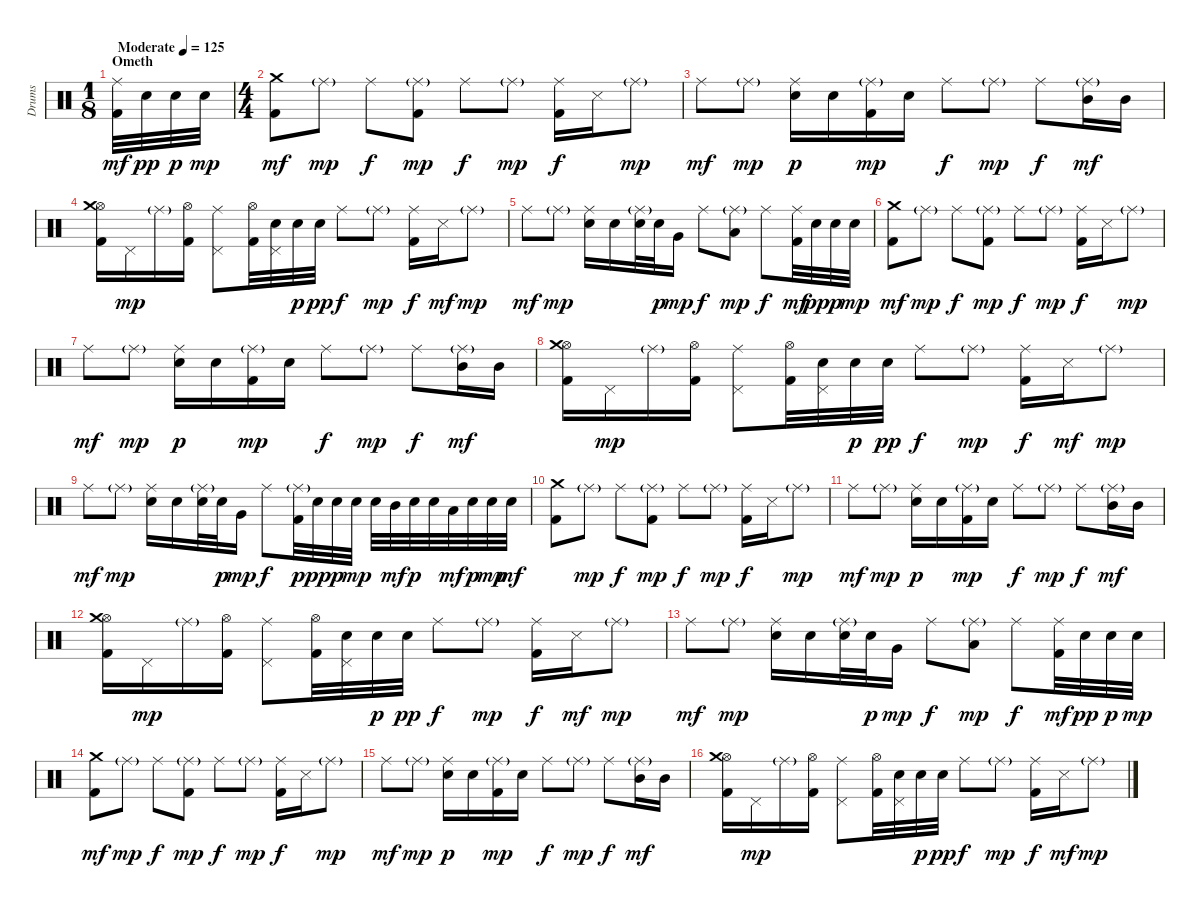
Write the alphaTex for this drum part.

\track ("Drums" "Drums") {instrument percussion}
\staff {score}
\articulation defaults
\ts (1 8)
\section ("" "Ometh")
\tempo (125 "Moderate")
\clef neutral
\ks c
("Ride (middle)" "Kick (hit) 2").32{dy mf} "Electric Snare (hit)".32{dy pp} "Electric Snare (hit)".32{dy p} "Electric Snare (hit)".32{dy mp} |
\ts (4 4)
("Crash medium (hit)" "Kick (hit) 2").8{dy mf} "Ride (middle)"{g}.8{dy mp} "Ride (middle)".8{dy f} ("Ride (middle)"{g} "Kick (hit) 2").8{dy mp} "Ride (middle)".8{dy f} "Ride (middle)"{g}.8{dy mp} ("Ride (middle)" "Kick (hit) 2").16{dy f} "Snare (side stick) 3".16 "Ride (middle)"{g}.8{dy mp} |
"Ride (middle)".8{dy mf} "Ride (middle)"{g}.8{dy mp} ("Ride (middle)" "Electric Snare (hit)").16{dy p} "Electric Snare (hit)".16 ("Ride (middle)"{g} "Kick (hit) 2").16{dy mp} "Electric Snare (hit)".16 "Ride (middle)".8{dy f} "Ride (middle)"{g}.8{dy mp} "Ride (middle)".8{dy f} ("Ride (middle)"{g} "Mid Tom (hit)").16{dy mf} "Mid Tom (hit)".16 |
("Hi-Hat (open)" "Crash medium (hit)" "Kick (hit) 2").16 "Pedal Hi-Hat (hit)".16{dy mp} "Ride (middle)"{g}.16 ("Hi-Hat (open)" "Kick (hit) 2").16 ("Pedal Hi-Hat (hit)" "Ride (middle)").8 ("Hi-Hat (open)" "Kick (hit) 2").32 ("Pedal Hi-Hat (hit)" "Electric Snare (hit)").32 "Electric Snare (hit)".32{dy p} "Electric Snare (hit)".32{dy pp} "Ride (middle)".8{dy f} "Ride (middle)"{g}.8{dy mp} ("Ride (middle)" "Kick (hit) 2").16{dy f} "Snare (side stick) 3".16{dy mf} "Ride (middle)"{g}.8{dy mp} |
"Ride (middle)".8{dy mf} "Ride (middle)"{g}.8{dy mp} ("Ride (middle)" "Electric Snare (hit)").16 "Electric Snare (hit)".16 ("Ride (middle)"{g} "Electric Snare (hit)").32 "Electric Snare (hit)".32{dy p} "Very Low Tom (hit)".16{dy mp} "Ride (middle)".8{dy f} ("Ride (middle)"{g} "Low Floor Tom (hit)").8{dy mp} "Ride (middle)".8{dy f} ("Ride (middle)" "Kick (hit) 2").32{dy mf} "Electric Snare (hit)".32{dy pp} "Electric Snare (hit)".32{dy p} "Electric Snare (hit)".32{dy mp} |
("Crash medium (hit)" "Kick (hit) 2").8{dy mf} "Ride (middle)"{g}.8{dy mp} "Ride (middle)".8{dy f} ("Ride (middle)"{g} "Kick (hit) 2").8{dy mp} "Ride (middle)".8{dy f} "Ride (middle)"{g}.8{dy mp} ("Ride (middle)" "Kick (hit) 2").16{dy f} "Snare (side stick) 3".16 "Ride (middle)"{g}.8{dy mp} |
"Ride (middle)".8{dy mf} "Ride (middle)"{g}.8{dy mp} ("Ride (middle)" "Electric Snare (hit)").16{dy p} "Electric Snare (hit)".16 ("Ride (middle)"{g} "Kick (hit) 2").16{dy mp} "Electric Snare (hit)".16 "Ride (middle)".8{dy f} "Ride (middle)"{g}.8{dy mp} "Ride (middle)".8{dy f} ("Ride (middle)"{g} "Mid Tom (hit)").16{dy mf} "Mid Tom (hit)".16 |
("Hi-Hat (open)" "Crash medium (hit)" "Kick (hit) 2").16 "Pedal Hi-Hat (hit)".16{dy mp} "Ride (middle)"{g}.16 ("Hi-Hat (open)" "Kick (hit) 2").16 ("Pedal Hi-Hat (hit)" "Ride (middle)").8 ("Hi-Hat (open)" "Kick (hit) 2").32 ("Pedal Hi-Hat (hit)" "Electric Snare (hit)").32 "Electric Snare (hit)".32{dy p} "Electric Snare (hit)".32{dy pp} "Ride (middle)".8{dy f} "Ride (middle)"{g}.8{dy mp} ("Ride (middle)" "Kick (hit) 2").16{dy f} "Snare (side stick) 3".16{dy mf} "Ride (middle)"{g}.8{dy mp} |
"Ride (middle)".8{dy mf} "Ride (middle)"{g}.8{dy mp} ("Ride (middle)" "Electric Snare (hit)").16 "Electric Snare (hit)".16 ("Ride (middle)"{g} "Electric Snare (hit)").32 "Electric Snare (hit)".32{dy p} "Very Low Tom (hit)".16{dy mp} "Ride (middle)".8{dy f} ("Ride (middle)"{g} "Kick (hit) 2").32{dy p} "Electric Snare (hit)".32{dy pp} "Electric Snare (hit)".32{dy p} "Electric Snare (hit)".32{dy mp} "Electric Snare (hit)".32 "Mid Tom (hit)".32{dy mf} "Electric Snare (hit)".32{dy p} "Electric Snare (hit)".32 "Low Tom (hit)".32{dy mf} "Electric Snare (hit)".32{dy p} "Electric Snare (hit)".32{dy mp} "Electric Snare (hit)".32{dy mf} |
("Crash medium (hit)" "Kick (hit) 2").8 "Ride (middle)"{g}.8{dy mp} "Ride (middle)".8{dy f} ("Ride (middle)"{g} "Kick (hit) 2").8{dy mp} "Ride (middle)".8{dy f} "Ride (middle)"{g}.8{dy mp} ("Ride (middle)" "Kick (hit) 2").16{dy f} "Snare (side stick) 3".16 "Ride (middle)"{g}.8{dy mp} |
"Ride (middle)".8{dy mf} "Ride (middle)"{g}.8{dy mp} ("Ride (middle)" "Electric Snare (hit)").16{dy p} "Electric Snare (hit)".16 ("Ride (middle)"{g} "Kick (hit) 2").16{dy mp} "Electric Snare (hit)".16 "Ride (middle)".8{dy f} "Ride (middle)"{g}.8{dy mp} "Ride (middle)".8{dy f} ("Ride (middle)"{g} "Mid Tom (hit)").16{dy mf} "Mid Tom (hit)".16 |
("Hi-Hat (open)" "Crash medium (hit)" "Kick (hit) 2").16 "Pedal Hi-Hat (hit)".16{dy mp} "Ride (middle)"{g}.16 ("Hi-Hat (open)" "Kick (hit) 2").16 ("Pedal Hi-Hat (hit)" "Ride (middle)").8 ("Hi-Hat (open)" "Kick (hit) 2").32 ("Pedal Hi-Hat (hit)" "Electric Snare (hit)").32 "Electric Snare (hit)".32{dy p} "Electric Snare (hit)".32{dy pp} "Ride (middle)".8{dy f} "Ride (middle)"{g}.8{dy mp} ("Ride (middle)" "Kick (hit) 2").16{dy f} "Snare (side stick) 3".16{dy mf} "Ride (middle)"{g}.8{dy mp} |
"Ride (middle)".8{dy mf} "Ride (middle)"{g}.8{dy mp} ("Ride (middle)" "Electric Snare (hit)").16 "Electric Snare (hit)".16 ("Ride (middle)"{g} "Electric Snare (hit)").32 "Electric Snare (hit)".32{dy p} "Very Low Tom (hit)".16{dy mp} "Ride (middle)".8{dy f} ("Ride (middle)"{g} "Low Floor Tom (hit)").8{dy mp} "Ride (middle)".8{dy f} ("Ride (middle)" "Kick (hit) 2").32{dy mf} "Electric Snare (hit)".32{dy pp} "Electric Snare (hit)".32{dy p} "Electric Snare (hit)".32{dy mp} |
("Crash medium (hit)" "Kick (hit) 2").8{dy mf} "Ride (middle)"{g}.8{dy mp} "Ride (middle)".8{dy f} ("Ride (middle)"{g} "Kick (hit) 2").8{dy mp} "Ride (middle)".8{dy f} "Ride (middle)"{g}.8{dy mp} ("Ride (middle)" "Kick (hit) 2").16{dy f} "Snare (side stick) 3".16 "Ride (middle)"{g}.8{dy mp} |
"Ride (middle)".8{dy mf} "Ride (middle)"{g}.8{dy mp} ("Ride (middle)" "Electric Snare (hit)").16{dy p} "Electric Snare (hit)".16 ("Ride (middle)"{g} "Kick (hit) 2").16{dy mp} "Electric Snare (hit)".16 "Ride (middle)".8{dy f} "Ride (middle)"{g}.8{dy mp} "Ride (middle)".8{dy f} ("Ride (middle)"{g} "Mid Tom (hit)").16{dy mf} "Mid Tom (hit)".16 |
("Hi-Hat (open)" "Crash medium (hit)" "Kick (hit) 2").16 "Pedal Hi-Hat (hit)".16{dy mp} "Ride (middle)"{g}.16 ("Hi-Hat (open)" "Kick (hit) 2").16 ("Pedal Hi-Hat (hit)" "Ride (middle)").8 ("Hi-Hat (open)" "Kick (hit) 2").32 ("Pedal Hi-Hat (hit)" "Electric Snare (hit)").32 "Electric Snare (hit)".32{dy p} "Electric Snare (hit)".32{dy pp} "Ride (middle)".8{dy f} "Ride (middle)"{g}.8{dy mp} ("Ride (middle)" "Kick (hit) 2").16{dy f} "Snare (side stick) 3".16{dy mf} "Ride (middle)"{g}.8{dy mp}
